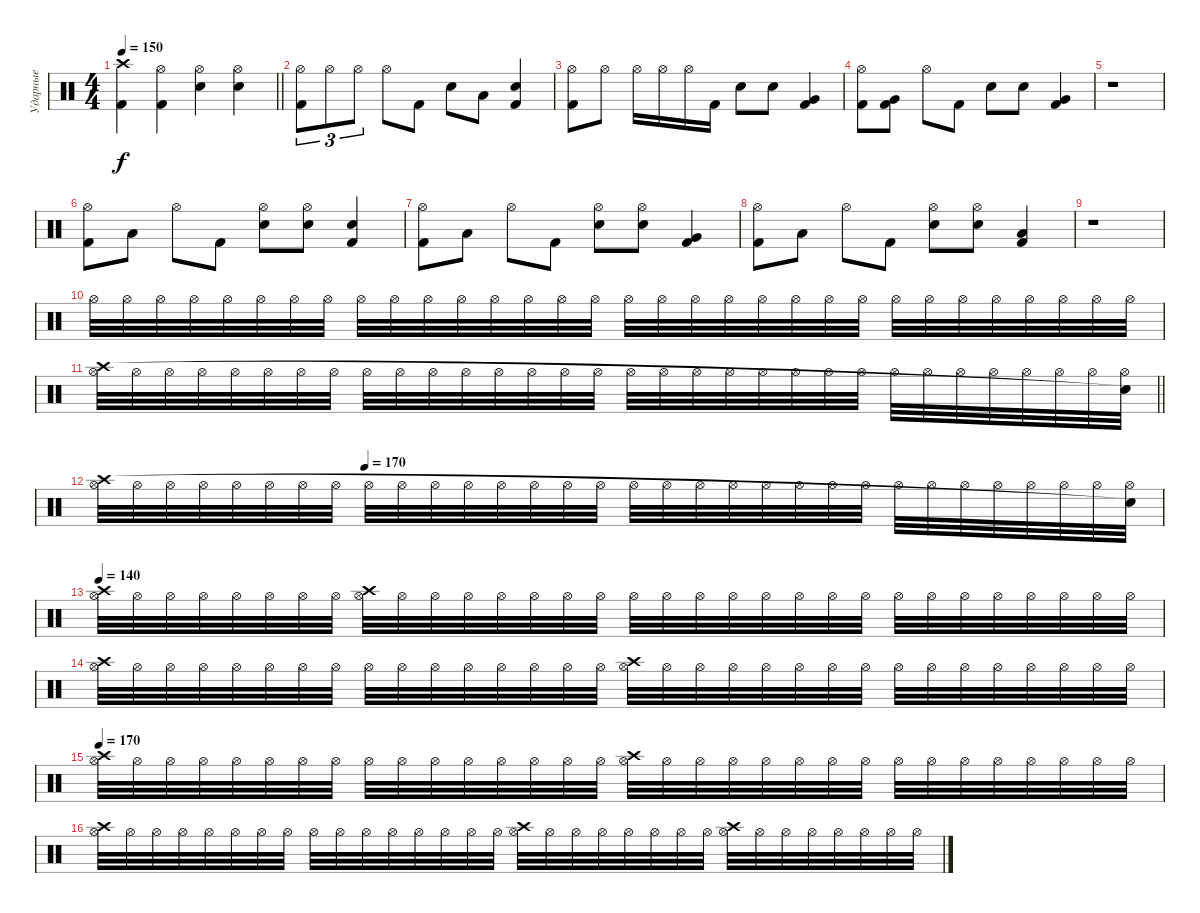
\track ("Ударные" "Ударные") {instrument percussion}
\staff
\articulation defaults
\ts (4 4)
\tempo 150
\clef neutral
\barLineRight lightlight
\ks c
("Kick (hit) 2" "Crash high (hit)").4{dy f} ("Kick (hit) 2" "Hi-Hat (open)").4 ("Snare (hit) 2" "Hi-Hat (open)").4 ("Snare (hit) 2" "Hi-Hat (open)").4 |
("Kick (hit) 2" "Hi-Hat (open)").8{tu (3 2)} "Hi-Hat (open)".8{tu (3 2)} "Hi-Hat (open)".8{tu (3 2)} "Hi-Hat (open)".8 "Kick (hit) 2".8 "Snare (hit) 2".8 "Low Tom (hit)".8 ("Kick (hit) 2" "Electric Snare (hit)").4 |
("Kick (hit) 2" "Hi-Hat (open)").8 "Hi-Hat (open)".8 "Hi-Hat (open)".16 "Hi-Hat (open)".16 "Hi-Hat (open)".16 "Kick (hit) 2".16 "Snare (hit) 2".8 "Snare (hit) 2".8 ("Kick (hit) 2" "Very Low Tom (hit)").4 |
("Kick (hit) 2" "Hi-Hat (open)").8 ("Kick (hit) 2" "Very Low Tom (hit)").8 "Hi-Hat (open)".8 "Kick (hit) 2".8 "Snare (hit) 2".8 "Snare (hit) 2".8 ("Kick (hit) 2" "Very Low Tom (hit)").4 |
r.1 |
("Kick (hit) 2" "Hi-Hat (open)").8 "Low Tom (hit)".8 "Hi-Hat (open)".8 "Kick (hit) 2".8 ("Snare (hit) 2" "Hi-Hat (open)").8 ("Snare (hit) 2" "Hi-Hat (open)").8 ("Kick (hit) 2" "Electric Snare (hit)").4 |
("Kick (hit) 2" "Hi-Hat (open)").8 "Low Tom (hit)".8 "Hi-Hat (open)".8 "Kick (hit) 2".8 ("Snare (hit) 2" "Hi-Hat (open)").8 ("Snare (hit) 2" "Hi-Hat (open)").8 ("Kick (hit) 2" "Very Low Tom (hit)").4 |
("Kick (hit) 2" "Hi-Hat (open)").8 "Low Tom (hit)".8 "Hi-Hat (open)".8 "Kick (hit) 2".8 ("Snare (hit) 2" "Hi-Hat (open)").8 ("Snare (hit) 2" "Hi-Hat (open)").8 ("Kick (hit) 2" "Low Floor Tom (hit)").4 |
r.1 |
"Hi-Hat (open)".32{volume 0} "Hi-Hat (open)".32{volume 7} "Hi-Hat (open)".32 "Hi-Hat (open)".32 "Hi-Hat (open)".32 "Hi-Hat (open)".32 "Hi-Hat (open)".32 "Hi-Hat (open)".32 "Hi-Hat (open)".32 "Hi-Hat (open)".32 "Hi-Hat (open)".32 "Hi-Hat (open)".32 "Hi-Hat (open)".32 "Hi-Hat (open)".32 "Hi-Hat (open)".32 "Hi-Hat (open)".32 "Hi-Hat (open)".32 "Hi-Hat (open)".32 "Hi-Hat (open)".32 "Hi-Hat (open)".32 "Hi-Hat (open)".32 "Hi-Hat (open)".32 "Hi-Hat (open)".32 "Hi-Hat (open)".32 "Hi-Hat (open)".32 "Hi-Hat (open)".32 "Hi-Hat (open)".32 "Hi-Hat (open)".32 "Hi-Hat (open)".32 "Hi-Hat (open)".32 "Hi-Hat (open)".32 "Hi-Hat (open)".32 |
\barLineRight lightlight
("Hi-Hat (open)" "Crash high (hit)").32 "Hi-Hat (open)".32 "Hi-Hat (open)".32 "Hi-Hat (open)".32 "Hi-Hat (open)".32 "Hi-Hat (open)".32 "Hi-Hat (open)".32 "Hi-Hat (open)".32 "Hi-Hat (open)".32 "Hi-Hat (open)".32 "Hi-Hat (open)".32 "Hi-Hat (open)".32 "Hi-Hat (open)".32 "Hi-Hat (open)".32 "Hi-Hat (open)".32 "Hi-Hat (open)".32 "Hi-Hat (open)".32 "Hi-Hat (open)".32 "Hi-Hat (open)".32 "Hi-Hat (open)".32 "Hi-Hat (open)".32 "Hi-Hat (open)".32 "Hi-Hat (open)".32 "Hi-Hat (open)".32 "Hi-Hat (open)".32 "Hi-Hat (open)".32 "Hi-Hat (open)".32 "Hi-Hat (open)".32 "Hi-Hat (open)".32 "Hi-Hat (open)".32 "Hi-Hat (open)".32 ("Hi-Hat (open)" "Snare (hit)"{t}).32 |
\tempo (170 0.25)
("Hi-Hat (open)" "Crash high (hit)").32 "Hi-Hat (open)".32 "Hi-Hat (open)".32 "Hi-Hat (open)".32 "Hi-Hat (open)".32 "Hi-Hat (open)".32 "Hi-Hat (open)".32 "Hi-Hat (open)".32 "Hi-Hat (open)".32 "Hi-Hat (open)".32 "Hi-Hat (open)".32 "Hi-Hat (open)".32 "Hi-Hat (open)".32 "Hi-Hat (open)".32 "Hi-Hat (open)".32 "Hi-Hat (open)".32 "Hi-Hat (open)".32 "Hi-Hat (open)".32 "Hi-Hat (open)".32 "Hi-Hat (open)".32 "Hi-Hat (open)".32 "Hi-Hat (open)".32 "Hi-Hat (open)".32 "Hi-Hat (open)".32 "Hi-Hat (open)".32 "Hi-Hat (open)".32 "Hi-Hat (open)".32 "Hi-Hat (open)".32 "Hi-Hat (open)".32 "Hi-Hat (open)".32 "Hi-Hat (open)".32 ("Hi-Hat (open)" "Snare (hit)"{t}).32 |
\tempo 140
("Hi-Hat (open)" "Crash high (hit)").32 "Hi-Hat (open)".32 "Hi-Hat (open)".32 "Hi-Hat (open)".32 "Hi-Hat (open)".32 "Hi-Hat (open)".32 "Hi-Hat (open)".32 "Hi-Hat (open)".32 ("Hi-Hat (open)" "Crash high (hit)").32 "Hi-Hat (open)".32 "Hi-Hat (open)".32 "Hi-Hat (open)".32 "Hi-Hat (open)".32 "Hi-Hat (open)".32 "Hi-Hat (open)".32 "Hi-Hat (open)".32 "Hi-Hat (open)".32{volume 4} "Hi-Hat (open)".32 "Hi-Hat (open)".32 "Hi-Hat (open)".32 "Hi-Hat (open)".32 "Hi-Hat (open)".32 "Hi-Hat (open)".32 "Hi-Hat (open)".32 "Hi-Hat (open)".32 "Hi-Hat (open)".32 "Hi-Hat (open)".32 "Hi-Hat (open)".32 "Hi-Hat (open)".32 "Hi-Hat (open)".32 "Hi-Hat (open)".32 "Hi-Hat (open)".32 |
("Hi-Hat (open)" "Crash high (hit)").32 "Hi-Hat (open)".32 "Hi-Hat (open)".32 "Hi-Hat (open)".32 "Hi-Hat (open)".32 "Hi-Hat (open)".32 "Hi-Hat (open)".32 "Hi-Hat (open)".32 "Hi-Hat (open)".32 "Hi-Hat (open)".32 "Hi-Hat (open)".32 "Hi-Hat (open)".32 "Hi-Hat (open)".32 "Hi-Hat (open)".32 "Hi-Hat (open)".32 "Hi-Hat (open)".32 ("Hi-Hat (open)" "Crash high (hit)").32 "Hi-Hat (open)".32 "Hi-Hat (open)".32 "Hi-Hat (open)".32 "Hi-Hat (open)".32 "Hi-Hat (open)".32 "Hi-Hat (open)".32 "Hi-Hat (open)".32 "Hi-Hat (open)".32 "Hi-Hat (open)".32 "Hi-Hat (open)".32 "Hi-Hat (open)".32 "Hi-Hat (open)".32 "Hi-Hat (open)".32 "Hi-Hat (open)".32 "Hi-Hat (open)".32 |
\tempo 170
("Hi-Hat (open)" "Crash high (hit)").32 "Hi-Hat (open)".32 "Hi-Hat (open)".32 "Hi-Hat (open)".32 "Hi-Hat (open)".32 "Hi-Hat (open)".32 "Hi-Hat (open)".32 "Hi-Hat (open)".32 "Hi-Hat (open)".32 "Hi-Hat (open)".32 "Hi-Hat (open)".32 "Hi-Hat (open)".32 "Hi-Hat (open)".32 "Hi-Hat (open)".32 "Hi-Hat (open)".32 "Hi-Hat (open)".32 ("Hi-Hat (open)" "Crash high (hit)").32{volume 11} "Hi-Hat (open)".32 "Hi-Hat (open)".32 "Hi-Hat (open)".32 "Hi-Hat (open)".32 "Hi-Hat (open)".32 "Hi-Hat (open)".32 "Hi-Hat (open)".32 "Hi-Hat (open)".32 "Hi-Hat (open)".32 "Hi-Hat (open)".32 "Hi-Hat (open)".32 "Hi-Hat (open)".32 "Hi-Hat (open)".32 "Hi-Hat (open)".32 "Hi-Hat (open)".32 |
("Hi-Hat (open)" "Crash high (hit)").32 "Hi-Hat (open)".32 "Hi-Hat (open)".32 "Hi-Hat (open)".32 "Hi-Hat (open)".32 "Hi-Hat (open)".32 "Hi-Hat (open)".32 "Hi-Hat (open)".32 "Hi-Hat (open)".32 "Hi-Hat (open)".32 "Hi-Hat (open)".32 "Hi-Hat (open)".32 "Hi-Hat (open)".32 "Hi-Hat (open)".32 "Hi-Hat (open)".32 "Hi-Hat (open)".32 ("Hi-Hat (open)" "Crash high (hit)").32 "Hi-Hat (open)".32 "Hi-Hat (open)".32 "Hi-Hat (open)".32 "Hi-Hat (open)".32 "Hi-Hat (open)".32 "Hi-Hat (open)".32 "Hi-Hat (open)".32 ("Hi-Hat (open)" "Crash high (hit)").32 "Hi-Hat (open)".32 "Hi-Hat (open)".32 "Hi-Hat (open)".32 "Hi-Hat (open)".32 "Hi-Hat (open)".32 "Hi-Hat (open)".32 "Hi-Hat (open)".32
